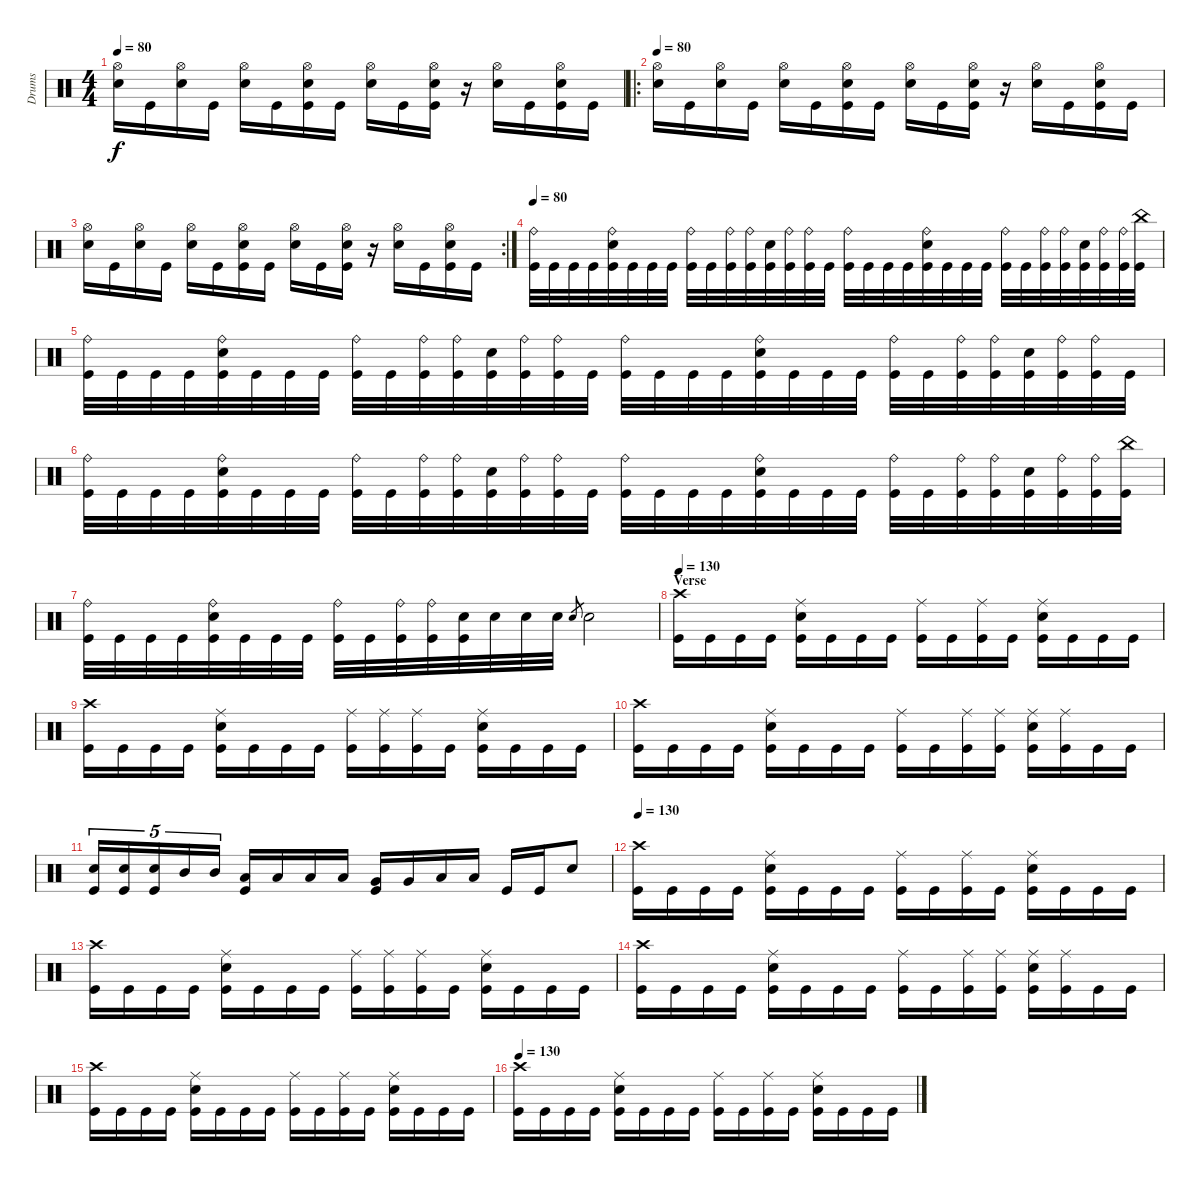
\track ("Drums" "Drums") {instrument percussion}
\staff {score}
\articulation defaults
\ts (4 4)
\tempo 80
\clef neutral
\ks c
("Hi-Hat (open)" "Electric Snare (hit)").16{dy f} "Kick (hit)".16 ("Hi-Hat (open)" "Electric Snare (hit)").16 "Kick (hit)".16 ("Hi-Hat (open)" "Electric Snare (hit)").16 "Kick (hit)".16 ("Hi-Hat (open)" "Electric Snare (hit)" "Kick (hit)").16 "Kick (hit)".16 ("Hi-Hat (open)" "Electric Snare (hit)").16 "Kick (hit)".16 ("Hi-Hat (open)" "Electric Snare (hit)" "Kick (hit)").16 r.16 ("Hi-Hat (open)" "Electric Snare (hit)").16 "Kick (hit)".16 ("Hi-Hat (open)" "Electric Snare (hit)" "Kick (hit)").16 "Kick (hit)".16 |
\ro
\tempo 80
("Hi-Hat (open)" "Electric Snare (hit)").16 "Kick (hit)".16 ("Hi-Hat (open)" "Electric Snare (hit)").16 "Kick (hit)".16 ("Hi-Hat (open)" "Electric Snare (hit)").16 "Kick (hit)".16 ("Hi-Hat (open)" "Electric Snare (hit)" "Kick (hit)").16 "Kick (hit)".16 ("Hi-Hat (open)" "Electric Snare (hit)").16 "Kick (hit)".16 ("Hi-Hat (open)" "Electric Snare (hit)" "Kick (hit)").16 r.16 ("Hi-Hat (open)" "Electric Snare (hit)").16 "Kick (hit)".16 ("Hi-Hat (open)" "Electric Snare (hit)" "Kick (hit)").16 "Kick (hit)".16 |
\rc 2
("Hi-Hat (open)" "Electric Snare (hit)").16 "Kick (hit)".16 ("Hi-Hat (open)" "Electric Snare (hit)").16 "Kick (hit)".16 ("Hi-Hat (open)" "Electric Snare (hit)").16 "Kick (hit)".16 ("Hi-Hat (open)" "Electric Snare (hit)" "Kick (hit)").16 "Kick (hit)".16 ("Hi-Hat (open)" "Electric Snare (hit)").16 "Kick (hit)".16 ("Hi-Hat (open)" "Electric Snare (hit)" "Kick (hit)").16 r.16 ("Hi-Hat (open)" "Electric Snare (hit)").16 "Kick (hit)".16 ("Hi-Hat (open)" "Electric Snare (hit)" "Kick (hit)").16 "Kick (hit)".16 |
\tempo 80
("Ride (bell)" "Kick (hit)").32 "Kick (hit)".32 "Kick (hit)".32 "Kick (hit)".32 ("Ride (bell)" "Electric Snare (hit)" "Kick (hit)").32 "Kick (hit)".32 "Kick (hit)".32 "Kick (hit)".32 ("Ride (bell)" "Kick (hit)").32 "Kick (hit)".32 ("Ride (bell)" "Kick (hit)").32 ("Ride (bell)" "Kick (hit)").32 ("Electric Snare (hit)" "Kick (hit)").32 ("Ride (bell)" "Kick (hit)").32 ("Ride (bell)" "Kick (hit)").32 "Kick (hit)".32 ("Ride (bell)" "Kick (hit)").32 "Kick (hit)".32 "Kick (hit)".32 "Kick (hit)".32 ("Ride (bell)" "Electric Snare (hit)" "Kick (hit)").32 "Kick (hit)".32 "Kick (hit)".32 "Kick (hit)".32 ("Ride (bell)" "Kick (hit)").32 "Kick (hit)".32 ("Ride (bell)" "Kick (hit)").32 ("Ride (bell)" "Kick (hit)").32 ("Electric Snare (hit)" "Kick (hit)").32 ("Ride (bell)" "Kick (hit)").32 ("Ride (bell)" "Kick (hit)").32 ("China (hit)" "Kick (hit)").32 |
("Ride (bell)" "Kick (hit)").32 "Kick (hit)".32 "Kick (hit)".32 "Kick (hit)".32 ("Ride (bell)" "Electric Snare (hit)" "Kick (hit)").32 "Kick (hit)".32 "Kick (hit)".32 "Kick (hit)".32 ("Ride (bell)" "Kick (hit)").32 "Kick (hit)".32 ("Ride (bell)" "Kick (hit)").32 ("Ride (bell)" "Kick (hit)").32 ("Electric Snare (hit)" "Kick (hit)").32 ("Ride (bell)" "Kick (hit)").32 ("Ride (bell)" "Kick (hit)").32 "Kick (hit)".32 ("Ride (bell)" "Kick (hit)").32 "Kick (hit)".32 "Kick (hit)".32 "Kick (hit)".32 ("Ride (bell)" "Electric Snare (hit)" "Kick (hit)").32 "Kick (hit)".32 "Kick (hit)".32 "Kick (hit)".32 ("Ride (bell)" "Kick (hit)").32 "Kick (hit)".32 ("Ride (bell)" "Kick (hit)").32 ("Ride (bell)" "Kick (hit)").32 ("Electric Snare (hit)" "Kick (hit)").32 ("Ride (bell)" "Kick (hit)").32 ("Ride (bell)" "Kick (hit)").32 "Kick (hit)".32 |
("Ride (bell)" "Kick (hit)").32 "Kick (hit)".32 "Kick (hit)".32 "Kick (hit)".32 ("Ride (bell)" "Electric Snare (hit)" "Kick (hit)").32 "Kick (hit)".32 "Kick (hit)".32 "Kick (hit)".32 ("Ride (bell)" "Kick (hit)").32 "Kick (hit)".32 ("Ride (bell)" "Kick (hit)").32 ("Ride (bell)" "Kick (hit)").32 ("Electric Snare (hit)" "Kick (hit)").32 ("Ride (bell)" "Kick (hit)").32 ("Ride (bell)" "Kick (hit)").32 "Kick (hit)".32 ("Ride (bell)" "Kick (hit)").32 "Kick (hit)".32 "Kick (hit)".32 "Kick (hit)".32 ("Ride (bell)" "Electric Snare (hit)" "Kick (hit)").32 "Kick (hit)".32 "Kick (hit)".32 "Kick (hit)".32 ("Ride (bell)" "Kick (hit)").32 "Kick (hit)".32 ("Ride (bell)" "Kick (hit)").32 ("Ride (bell)" "Kick (hit)").32 ("Electric Snare (hit)" "Kick (hit)").32 ("Ride (bell)" "Kick (hit)").32 ("Ride (bell)" "Kick (hit)").32 ("China (hit)" "Kick (hit)").32 |
("Ride (bell)" "Kick (hit)").32 "Kick (hit)".32 "Kick (hit)".32 "Kick (hit)".32 ("Ride (bell)" "Electric Snare (hit)" "Kick (hit)").32 "Kick (hit)".32 "Kick (hit)".32 "Kick (hit)".32 ("Ride (bell)" "Kick (hit)").32 "Kick (hit)".32 ("Ride (bell)" "Kick (hit)").32 ("Ride (bell)" "Kick (hit)").32 ("Electric Snare (hit)" "Kick (hit)").32 "Electric Snare (hit)".32 "Electric Snare (hit)".32 "Electric Snare (hit)".32 "Electric Snare (hit)".8{gr} "Electric Snare (hit)".2 |
\section ("" "Verse")
\tempo 130
("Crash high (hit)" "Kick (hit)").16 "Kick (hit)".16 "Kick (hit)".16 "Kick (hit)".16 ("Ride (middle)" "Electric Snare (hit)" "Kick (hit)").16 "Kick (hit)".16 "Kick (hit)".16 "Kick (hit)".16 ("Ride (middle)" "Kick (hit)").16 "Kick (hit)".16 ("Ride (middle)" "Kick (hit)").16 "Kick (hit)".16 ("Ride (middle)" "Electric Snare (hit)" "Kick (hit)").16 "Kick (hit)".16 "Kick (hit)".16 "Kick (hit)".16 |
("Crash high (hit)" "Kick (hit)").16 "Kick (hit)".16 "Kick (hit)".16 "Kick (hit)".16 ("Ride (middle)" "Electric Snare (hit)" "Kick (hit)").16 "Kick (hit)".16 "Kick (hit)".16 "Kick (hit)".16 ("Ride (middle)" "Kick (hit)").16 ("Ride (middle)" "Kick (hit)").16 ("Ride (middle)" "Kick (hit)").16 "Kick (hit)".16 ("Ride (middle)" "Electric Snare (hit)" "Kick (hit)").16 "Kick (hit)".16 "Kick (hit)".16 "Kick (hit)".16 |
("Crash high (hit)" "Kick (hit)").16 "Kick (hit)".16 "Kick (hit)".16 "Kick (hit)".16 ("Ride (middle)" "Electric Snare (hit)" "Kick (hit)").16 "Kick (hit)".16 "Kick (hit)".16 "Kick (hit)".16 ("Ride (middle)" "Kick (hit)").16 "Kick (hit)".16 ("Ride (middle)" "Kick (hit)").16 ("Ride (middle)" "Kick (hit)").16 ("Ride (middle)" "Electric Snare (hit)" "Kick (hit)").16 ("Ride (middle)" "Kick (hit)").16 "Kick (hit)".16 "Kick (hit)".16 |
("Electric Snare (hit)" "Kick (hit)").16{tu (5 4)} ("Electric Snare (hit)" "Kick (hit)").16{tu (5 4)} ("Electric Snare (hit)" "Kick (hit)").16{tu (5 4)} "Mid Tom (hit)".16{tu (5 4)} "Mid Tom (hit)".16{tu (5 4)} ("Low Tom (hit)" "Kick (hit)").16 "Low Tom (hit)".16 "Low Tom (hit)".16 "Low Tom (hit)".16 ("Very Low Tom (hit)" "Kick (hit)").16 "Very Low Tom (hit)".16 "Low Floor Tom (hit)".16 "Low Floor Tom (hit)".16 "Kick (hit)".16 "Kick (hit)".16 "Electric Snare (hit)".8 |
\tempo 130
("Crash high (hit)" "Kick (hit)").16 "Kick (hit)".16 "Kick (hit)".16 "Kick (hit)".16 ("Ride (middle)" "Electric Snare (hit)" "Kick (hit)").16 "Kick (hit)".16 "Kick (hit)".16 "Kick (hit)".16 ("Ride (middle)" "Kick (hit)").16 "Kick (hit)".16 ("Ride (middle)" "Kick (hit)").16 "Kick (hit)".16 ("Ride (middle)" "Electric Snare (hit)" "Kick (hit)").16 "Kick (hit)".16 "Kick (hit)".16 "Kick (hit)".16 |
("Crash high (hit)" "Kick (hit)").16 "Kick (hit)".16 "Kick (hit)".16 "Kick (hit)".16 ("Ride (middle)" "Electric Snare (hit)" "Kick (hit)").16 "Kick (hit)".16 "Kick (hit)".16 "Kick (hit)".16 ("Ride (middle)" "Kick (hit)").16 ("Ride (middle)" "Kick (hit)").16 ("Ride (middle)" "Kick (hit)").16 "Kick (hit)".16 ("Ride (middle)" "Electric Snare (hit)" "Kick (hit)").16 "Kick (hit)".16 "Kick (hit)".16 "Kick (hit)".16 |
("Crash high (hit)" "Kick (hit)").16 "Kick (hit)".16 "Kick (hit)".16 "Kick (hit)".16 ("Ride (middle)" "Electric Snare (hit)" "Kick (hit)").16 "Kick (hit)".16 "Kick (hit)".16 "Kick (hit)".16 ("Ride (middle)" "Kick (hit)").16 "Kick (hit)".16 ("Ride (middle)" "Kick (hit)").16 ("Ride (middle)" "Kick (hit)").16 ("Ride (middle)" "Electric Snare (hit)" "Kick (hit)").16 ("Ride (middle)" "Kick (hit)").16 "Kick (hit)".16 "Kick (hit)".16 |
("Crash high (hit)" "Kick (hit)").16 "Kick (hit)".16 "Kick (hit)".16 "Kick (hit)".16 ("Ride (middle)" "Electric Snare (hit)" "Kick (hit)").16 "Kick (hit)".16 "Kick (hit)".16 "Kick (hit)".16 ("Ride (middle)" "Kick (hit)").16 "Kick (hit)".16 ("Ride (middle)" "Kick (hit)").16 "Kick (hit)".16 ("Ride (middle)" "Electric Snare (hit)" "Kick (hit)").16 "Kick (hit)".16 "Kick (hit)".16 "Kick (hit)".16 |
\tempo 130
("Crash high (hit)" "Kick (hit)").16 "Kick (hit)".16 "Kick (hit)".16 "Kick (hit)".16 ("Ride (middle)" "Electric Snare (hit)" "Kick (hit)").16 "Kick (hit)".16 "Kick (hit)".16 "Kick (hit)".16 ("Ride (middle)" "Kick (hit)").16 "Kick (hit)".16 ("Ride (middle)" "Kick (hit)").16 "Kick (hit)".16 ("Ride (middle)" "Electric Snare (hit)" "Kick (hit)").16 "Kick (hit)".16 "Kick (hit)".16 "Kick (hit)".16
